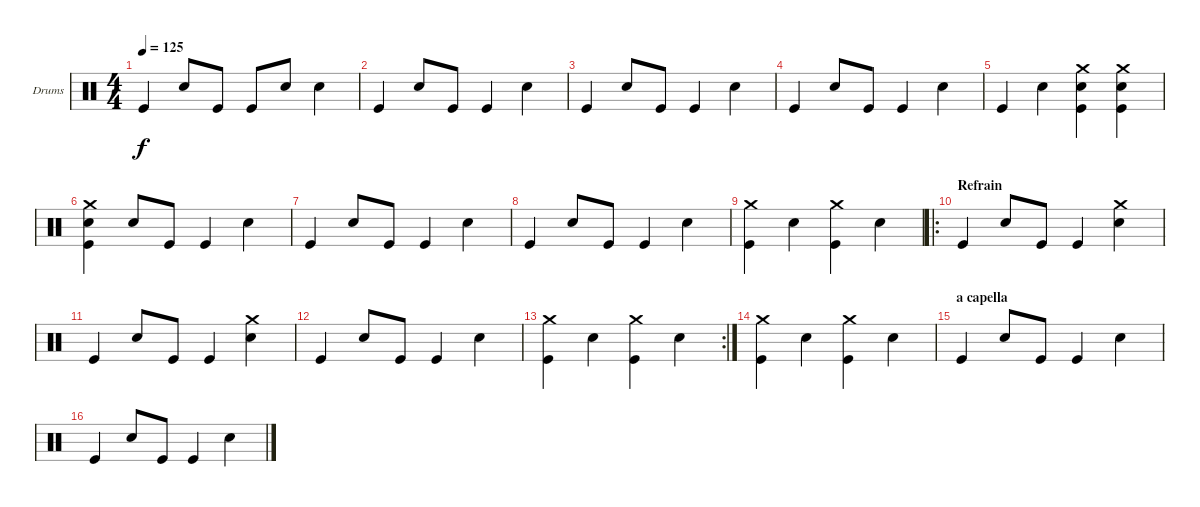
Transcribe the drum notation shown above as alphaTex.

\bracketExtendMode groupsimilarinstruments
\firstSystemTrackNameOrientation horizontal
\otherSystemsTrackNameOrientation horizontal
\track ("batterie" "Drums") {instrument percussion}
\staff {score}
\articulation defaults
\ts (4 4)
\tempo 125
\clef neutral
\ks c "Kick (hit)".4{dy f} "Snare (hit) 2".8 "Kick (hit)".8 "Kick (hit)".8 "Snare (hit) 2".8 "Snare (hit) 2".4
|
"Kick (hit)".4 "Snare (hit) 2".8 "Kick (hit)".8 "Kick (hit)".4 "Snare (hit) 2".4 |
"Kick (hit)".4 "Snare (hit) 2".8 "Kick (hit)".8 "Kick (hit)".4 "Snare (hit) 2".4 |
"Kick (hit)".4 "Snare (hit) 2".8 "Kick (hit)".8 "Kick (hit)".4 "Snare (hit) 2".4 |
"Kick (hit)".4 "Snare (hit) 2".4 ("Crash medium (hit)" "Snare (hit) 2" "Kick (hit)").4 ("Crash medium (hit)" "Snare (hit) 2" "Kick (hit)").4 |
("Crash medium (hit)" "Snare (hit) 2" "Kick (hit)").4 "Snare (hit) 2".8 "Kick (hit)".8 "Kick (hit)".4 "Snare (hit) 2".4 |
"Kick (hit)".4 "Snare (hit) 2".8 "Kick (hit)".8 "Kick (hit)".4 "Snare (hit) 2".4 |
"Kick (hit)".4 "Snare (hit) 2".8 "Kick (hit)".8 "Kick (hit)".4 "Snare (hit) 2".4 |
("Crash medium (hit)" "Kick (hit)").4 "Snare (hit) 2".4 ("Crash medium (hit)" "Kick (hit)").4 "Snare (hit) 2".4 |
\ro
\section ("" "Refrain")
"Kick (hit)".4 "Snare (hit) 2".8 "Kick (hit)".8 "Kick (hit)".4 ("Crash medium (hit)" "Snare (hit) 2").4 |
"Kick (hit)".4 "Snare (hit) 2".8 "Kick (hit)".8 "Kick (hit)".4 ("Crash medium (hit)" "Snare (hit) 2").4 |
"Kick (hit)".4 "Snare (hit) 2".8 "Kick (hit)".8 "Kick (hit)".4 "Snare (hit) 2".4 |
\rc 2
("Crash medium (hit)" "Kick (hit)").4 "Snare (hit) 2".4 ("Crash medium (hit)" "Kick (hit)").4 "Snare (hit) 2".4 |
("Crash medium (hit)" "Kick (hit)").4 "Snare (hit) 2".4 ("Crash medium (hit)" "Kick (hit)").4 "Snare (hit) 2".4 |
\section ("" "a capella")
"Kick (hit)".4 "Snare (hit) 2".8 "Kick (hit)".8 "Kick (hit)".4 "Snare (hit) 2".4 |
"Kick (hit)".4 "Snare (hit) 2".8 "Kick (hit)".8 "Kick (hit)".4 "Snare (hit) 2".4
